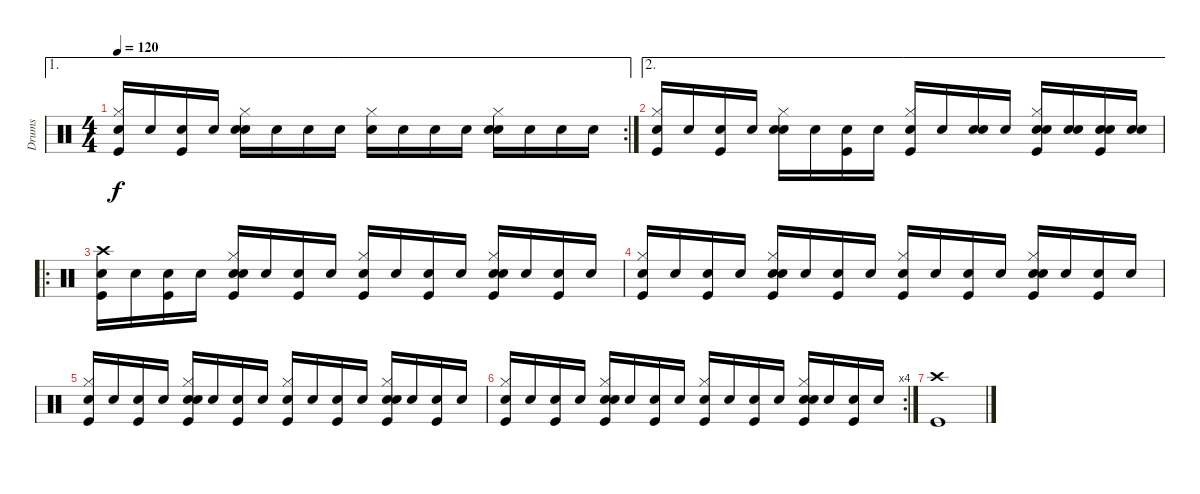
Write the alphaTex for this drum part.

\track ("Drums" "Drums") {instrument percussion}
\staff {score}
\articulation defaults
\ae 1
\rc 2
\ts (4 4)
\tempo 120
\clef neutral
\ks c
("Snare (hit)" "Hi-Hat (closed)" "Kick (hit)").16{dy f} "Snare (hit)".16 ("Snare (hit)" "Kick (hit)").16 "Snare (hit)".16 ("Snare (hit)" "Snare (hit) 2" "Hi-Hat (closed)").16 "Snare (hit)".16 "Snare (hit)".16 "Snare (hit)".16 ("Snare (hit)" "Hi-Hat (closed)").16 "Snare (hit)".16 "Snare (hit)".16 "Snare (hit)".16 ("Snare (hit)" "Snare (hit) 2" "Hi-Hat (closed)").16 "Snare (hit)".16 "Snare (hit)".16 "Snare (hit)".16 |
\ae 2
("Snare (hit)" "Hi-Hat (closed)" "Kick (hit)").16 "Snare (hit)".16 ("Snare (hit)" "Kick (hit)").16 "Snare (hit)".16 ("Snare (hit)" "Snare (hit) 2" "Hi-Hat (closed)").16 "Snare (hit)".16 ("Snare (hit)" "Kick (hit)").16 "Snare (hit)".16 ("Snare (hit)" "Hi-Hat (closed)" "Kick (hit)").16 "Snare (hit)".16 ("Snare (hit)" "Snare (hit) 2").16 "Snare (hit)".16 ("Snare (hit)" "Snare (hit) 2" "Hi-Hat (closed)" "Kick (hit)").16 ("Snare (hit)" "Snare (hit) 2").16 ("Snare (hit)" "Snare (hit) 2" "Kick (hit)").16 ("Snare (hit)" "Snare (hit) 2").16 |
\ro
("Snare (hit)" "Crash high (hit)" "Kick (hit)").16 "Snare (hit)".16 ("Snare (hit)" "Kick (hit)").16 "Snare (hit)".16 ("Snare (hit)" "Snare (hit) 2" "Hi-Hat (closed)" "Kick (hit)").16 "Snare (hit)".16 ("Snare (hit)" "Kick (hit)").16 "Snare (hit)".16 ("Snare (hit)" "Hi-Hat (closed)" "Kick (hit)").16 "Snare (hit)".16 ("Snare (hit)" "Kick (hit)").16 "Snare (hit)".16 ("Snare (hit)" "Snare (hit) 2" "Hi-Hat (closed)" "Kick (hit)").16 "Snare (hit)".16 ("Snare (hit)" "Kick (hit)").16 "Snare (hit)".16 |
("Snare (hit)" "Hi-Hat (closed)" "Kick (hit)").16 "Snare (hit)".16 ("Snare (hit)" "Kick (hit)").16 "Snare (hit)".16 ("Snare (hit)" "Snare (hit) 2" "Hi-Hat (closed)" "Kick (hit)").16 "Snare (hit)".16 ("Snare (hit)" "Kick (hit)").16 "Snare (hit)".16 ("Snare (hit)" "Hi-Hat (closed)" "Kick (hit)").16 "Snare (hit)".16 ("Snare (hit)" "Kick (hit)").16 "Snare (hit)".16 ("Snare (hit)" "Snare (hit) 2" "Hi-Hat (closed)" "Kick (hit)").16 "Snare (hit)".16 ("Snare (hit)" "Kick (hit)").16 "Snare (hit)".16 |
("Snare (hit)" "Hi-Hat (closed)" "Kick (hit)").16 "Snare (hit)".16 ("Snare (hit)" "Kick (hit)").16 "Snare (hit)".16 ("Snare (hit)" "Snare (hit) 2" "Hi-Hat (closed)" "Kick (hit)").16 "Snare (hit)".16 ("Snare (hit)" "Kick (hit)").16 "Snare (hit)".16 ("Snare (hit)" "Hi-Hat (closed)" "Kick (hit)").16 "Snare (hit)".16 ("Snare (hit)" "Kick (hit)").16 "Snare (hit)".16 ("Snare (hit)" "Snare (hit) 2" "Hi-Hat (closed)" "Kick (hit)").16 "Snare (hit)".16 ("Snare (hit)" "Kick (hit)").16 "Snare (hit)".16 |
\rc 4
("Snare (hit)" "Hi-Hat (closed)" "Kick (hit)").16 "Snare (hit)".16 ("Snare (hit)" "Kick (hit)").16 "Snare (hit)".16 ("Snare (hit)" "Snare (hit) 2" "Hi-Hat (closed)" "Kick (hit)").16 "Snare (hit)".16 ("Snare (hit)" "Kick (hit)").16 "Snare (hit)".16 ("Snare (hit)" "Hi-Hat (closed)" "Kick (hit)").16 "Snare (hit)".16 ("Snare (hit)" "Kick (hit)").16 "Snare (hit)".16 ("Snare (hit)" "Snare (hit) 2" "Hi-Hat (closed)" "Kick (hit)").16 "Snare (hit)".16 ("Snare (hit)" "Kick (hit)").16 "Snare (hit)".16 |
("Crash high (hit)" "Kick (hit)").1
